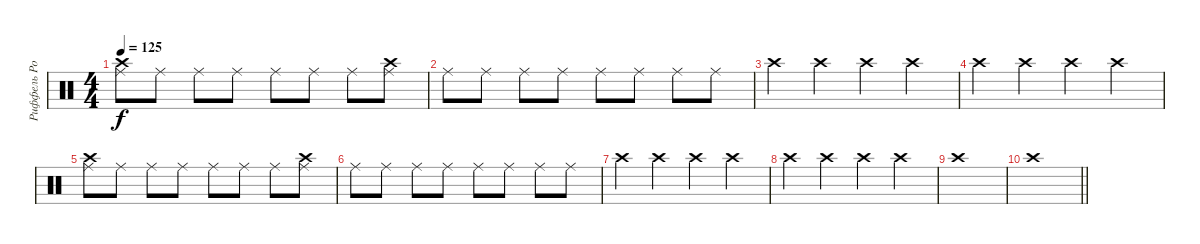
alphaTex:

\track ("Риффель Роман(хэты)" "Риффель Ро") {instrument percussion}
\staff {score}
\articulation defaults
\ts (4 4)
\tempo 125
\clef neutral
\ks c
("Ride (middle)" "Crash high (hit)").8{dy f} "Ride (middle)".8 "Ride (middle)".8 "Ride (middle)".8 "Ride (middle)".8 "Ride (middle)".8 "Ride (middle)".8 ("Ride (middle)" "Crash high (hit)").8 |
"Ride (middle)".8 "Ride (middle)".8 "Ride (middle)".8 "Ride (middle)".8 "Ride (middle)".8 "Ride (middle)".8 "Ride (middle)".8 "Ride (middle)".8 |
"Crash high (hit)".4 "Crash high (hit)".4 "Crash high (hit)".4 "Crash high (hit)".4 |
"Crash high (hit)".4 "Crash high (hit)".4 "Crash high (hit)".4 "Crash high (hit)".4 |
("Ride (middle)" "Crash high (hit)").8 "Ride (middle)".8 "Ride (middle)".8 "Ride (middle)".8 "Ride (middle)".8 "Ride (middle)".8 "Ride (middle)".8 ("Ride (middle)" "Crash high (hit)").8 |
"Ride (middle)".8 "Ride (middle)".8 "Ride (middle)".8 "Ride (middle)".8 "Ride (middle)".8 "Ride (middle)".8 "Ride (middle)".8 "Ride (middle)".8 |
"Crash high (hit)".4 "Crash high (hit)".4 "Crash high (hit)".4 "Crash high (hit)".4 |
"Crash high (hit)".4 "Crash high (hit)".4 "Crash high (hit)".4 "Crash high (hit)".4 |
"Crash high (hit)".1 |
\barLineRight lightlight "Crash high (hit)".1
